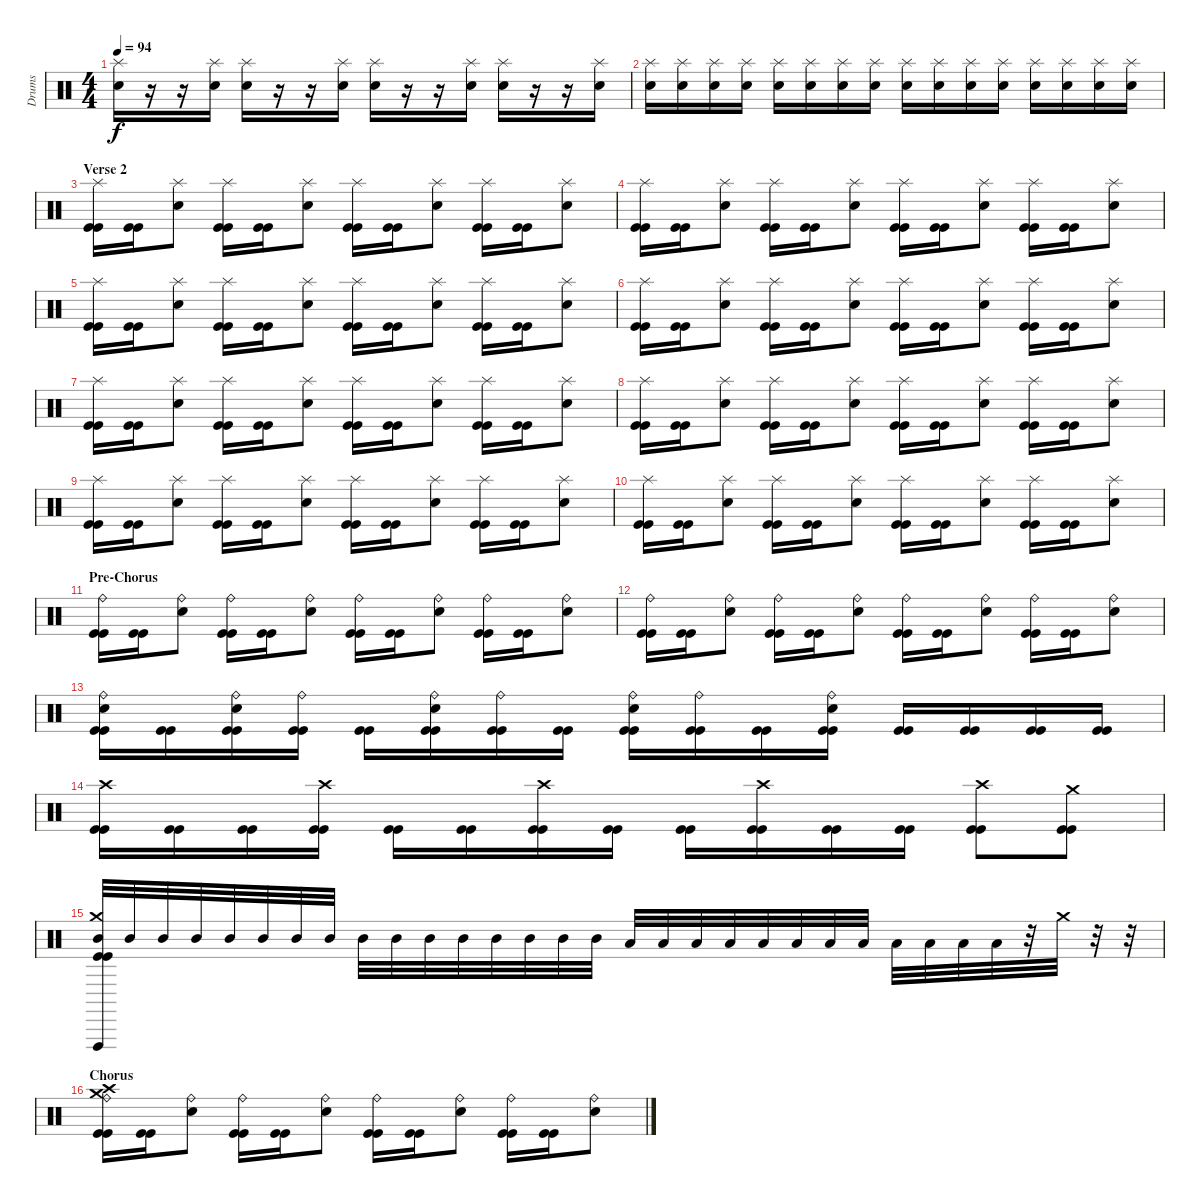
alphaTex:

\track ("Drums" "Drums") {instrument percussion}
\staff {score}
\articulation defaults
\ts (4 4)
\tempo 94
\clef neutral
\ks c
("Splash (hit)" "Snare (hit) 2").16{dy f} r.16 r.16 ("Splash (hit)" "Snare (hit) 2").16 ("Splash (hit)" "Snare (hit) 2").16 r.16 r.16 ("Splash (hit)" "Snare (hit) 2").16 ("Splash (hit)" "Snare (hit) 2").16 r.16 r.16 ("Splash (hit)" "Snare (hit) 2").16 ("Splash (hit)" "Snare (hit) 2").16 r.16 r.16 ("Splash (hit)" "Snare (hit) 2").16 |
("Splash (hit)" "Snare (hit) 2").16 ("Splash (hit)" "Snare (hit) 2").16 ("Splash (hit)" "Snare (hit) 2").16 ("Splash (hit)" "Snare (hit) 2").16 ("Splash (hit)" "Snare (hit) 2").16 ("Splash (hit)" "Snare (hit) 2").16 ("Splash (hit)" "Snare (hit) 2").16 ("Splash (hit)" "Snare (hit) 2").16 ("Splash (hit)" "Snare (hit) 2").16 ("Splash (hit)" "Snare (hit) 2").16 ("Splash (hit)" "Snare (hit) 2").16 ("Splash (hit)" "Snare (hit) 2").16 ("Splash (hit)" "Snare (hit) 2").16 ("Splash (hit)" "Snare (hit) 2").16 ("Splash (hit)" "Snare (hit) 2").16 ("Splash (hit)" "Snare (hit) 2").16 |
\section ("" "Verse 2")
("Splash (hit)" "Kick (hit)" "Kick (hit)").16 ("Kick (hit)" "Kick (hit)").16 ("Splash (hit)" "Snare (hit) 2").8 ("Splash (hit)" "Kick (hit)" "Kick (hit)").16 ("Kick (hit)" "Kick (hit)").16 ("Splash (hit)" "Snare (hit) 2").8 ("Splash (hit)" "Kick (hit)" "Kick (hit)").16 ("Kick (hit)" "Kick (hit)").16 ("Splash (hit)" "Snare (hit) 2").8 ("Splash (hit)" "Kick (hit)" "Kick (hit)").16 ("Kick (hit)" "Kick (hit)").16 ("Splash (hit)" "Snare (hit) 2").8 |
("Splash (hit)" "Kick (hit)" "Kick (hit)").16 ("Kick (hit)" "Kick (hit)").16 ("Splash (hit)" "Snare (hit) 2").8 ("Splash (hit)" "Kick (hit)" "Kick (hit)").16 ("Kick (hit)" "Kick (hit)").16 ("Splash (hit)" "Snare (hit) 2").8 ("Splash (hit)" "Kick (hit)" "Kick (hit)").16 ("Kick (hit)" "Kick (hit)").16 ("Splash (hit)" "Snare (hit) 2").8 ("Splash (hit)" "Kick (hit)" "Kick (hit)").16 ("Kick (hit)" "Kick (hit)").16 ("Splash (hit)" "Snare (hit) 2").8 |
("Splash (hit)" "Kick (hit)" "Kick (hit)").16 ("Kick (hit)" "Kick (hit)").16 ("Splash (hit)" "Snare (hit) 2").8 ("Splash (hit)" "Kick (hit)" "Kick (hit)").16 ("Kick (hit)" "Kick (hit)").16 ("Splash (hit)" "Snare (hit) 2").8 ("Splash (hit)" "Kick (hit)" "Kick (hit)").16 ("Kick (hit)" "Kick (hit)").16 ("Splash (hit)" "Snare (hit) 2").8 ("Splash (hit)" "Kick (hit)" "Kick (hit)").16 ("Kick (hit)" "Kick (hit)").16 ("Splash (hit)" "Snare (hit) 2").8 |
("Splash (hit)" "Kick (hit)" "Kick (hit)").16 ("Kick (hit)" "Kick (hit)").16 ("Splash (hit)" "Snare (hit) 2").8 ("Splash (hit)" "Kick (hit)" "Kick (hit)").16 ("Kick (hit)" "Kick (hit)").16 ("Splash (hit)" "Snare (hit) 2").8 ("Splash (hit)" "Kick (hit)" "Kick (hit)").16 ("Kick (hit)" "Kick (hit)").16 ("Splash (hit)" "Snare (hit) 2").8 ("Splash (hit)" "Kick (hit)" "Kick (hit)").16 ("Kick (hit)" "Kick (hit)").16 ("Splash (hit)" "Snare (hit) 2").8 |
("Splash (hit)" "Kick (hit)" "Kick (hit)").16 ("Kick (hit)" "Kick (hit)").16 ("Splash (hit)" "Snare (hit) 2").8 ("Splash (hit)" "Kick (hit)" "Kick (hit)").16 ("Kick (hit)" "Kick (hit)").16 ("Splash (hit)" "Snare (hit) 2").8 ("Splash (hit)" "Kick (hit)" "Kick (hit)").16 ("Kick (hit)" "Kick (hit)").16 ("Splash (hit)" "Snare (hit) 2").8 ("Splash (hit)" "Kick (hit)" "Kick (hit)").16 ("Kick (hit)" "Kick (hit)").16 ("Splash (hit)" "Snare (hit) 2").8 |
("Splash (hit)" "Kick (hit)" "Kick (hit)").16 ("Kick (hit)" "Kick (hit)").16 ("Splash (hit)" "Snare (hit) 2").8 ("Splash (hit)" "Kick (hit)" "Kick (hit)").16 ("Kick (hit)" "Kick (hit)").16 ("Splash (hit)" "Snare (hit) 2").8 ("Splash (hit)" "Kick (hit)" "Kick (hit)").16 ("Kick (hit)" "Kick (hit)").16 ("Splash (hit)" "Snare (hit) 2").8 ("Splash (hit)" "Kick (hit)" "Kick (hit)").16 ("Kick (hit)" "Kick (hit)").16 ("Splash (hit)" "Snare (hit) 2").8 |
("Splash (hit)" "Kick (hit)" "Kick (hit)").16 ("Kick (hit)" "Kick (hit)").16 ("Splash (hit)" "Snare (hit) 2").8 ("Splash (hit)" "Kick (hit)" "Kick (hit)").16 ("Kick (hit)" "Kick (hit)").16 ("Splash (hit)" "Snare (hit) 2").8 ("Splash (hit)" "Kick (hit)" "Kick (hit)").16 ("Kick (hit)" "Kick (hit)").16 ("Splash (hit)" "Snare (hit) 2").8 ("Splash (hit)" "Kick (hit)" "Kick (hit)").16 ("Kick (hit)" "Kick (hit)").16 ("Splash (hit)" "Snare (hit) 2").8 |
("Splash (hit)" "Kick (hit)" "Kick (hit)").16 ("Kick (hit)" "Kick (hit)").16 ("Splash (hit)" "Snare (hit) 2").8 ("Splash (hit)" "Kick (hit)" "Kick (hit)").16 ("Kick (hit)" "Kick (hit)").16 ("Splash (hit)" "Snare (hit) 2").8 ("Splash (hit)" "Kick (hit)" "Kick (hit)").16 ("Kick (hit)" "Kick (hit)").16 ("Splash (hit)" "Snare (hit) 2").8 ("Splash (hit)" "Kick (hit)" "Kick (hit)").16 ("Kick (hit)" "Kick (hit)").16 ("Splash (hit)" "Snare (hit) 2").8 |
\section ("" "Pre-Chorus")
("Ride (bell)" "Kick (hit)" "Kick (hit)").16 ("Kick (hit)" "Kick (hit)").16 ("Ride (bell)" "Snare (hit) 2").8 ("Ride (bell)" "Kick (hit)" "Kick (hit)").16 ("Kick (hit)" "Kick (hit)").16 ("Ride (bell)" "Snare (hit) 2").8 ("Ride (bell)" "Kick (hit)" "Kick (hit)").16 ("Kick (hit)" "Kick (hit)").16 ("Ride (bell)" "Snare (hit) 2").8 ("Ride (bell)" "Kick (hit)" "Kick (hit)").16 ("Kick (hit)" "Kick (hit)").16 ("Ride (bell)" "Snare (hit) 2").8 |
("Ride (bell)" "Kick (hit)" "Kick (hit)").16 ("Kick (hit)" "Kick (hit)").16 ("Ride (bell)" "Snare (hit) 2").8 ("Ride (bell)" "Kick (hit)" "Kick (hit)").16 ("Kick (hit)" "Kick (hit)").16 ("Ride (bell)" "Snare (hit) 2").8 ("Ride (bell)" "Kick (hit)" "Kick (hit)").16 ("Kick (hit)" "Kick (hit)").16 ("Ride (bell)" "Snare (hit) 2").8 ("Ride (bell)" "Kick (hit)" "Kick (hit)").16 ("Kick (hit)" "Kick (hit)").16 ("Ride (bell)" "Snare (hit) 2").8 |
("Ride (bell)" "Snare (hit) 2" "Kick (hit)" "Kick (hit)").16 ("Kick (hit)" "Kick (hit)").16 ("Ride (bell)" "Snare (hit) 2" "Kick (hit)" "Kick (hit)").16 ("Ride (bell)" "Kick (hit)" "Kick (hit)").16 ("Kick (hit)" "Kick (hit)").16 ("Ride (bell)" "Snare (hit) 2" "Kick (hit)" "Kick (hit)").16 ("Ride (bell)" "Kick (hit)" "Kick (hit)").16 ("Kick (hit)" "Kick (hit)").16 ("Ride (bell)" "Snare (hit) 2" "Kick (hit)" "Kick (hit)").16 ("Ride (bell)" "Kick (hit)" "Kick (hit)").16 ("Kick (hit)" "Kick (hit)").16 ("Ride (bell)" "Snare (hit) 2" "Kick (hit)" "Kick (hit)").16 ("Kick (hit)" "Kick (hit)").16 ("Kick (hit)" "Kick (hit)").16 ("Kick (hit)" "Kick (hit)").16 ("Kick (hit)" "Kick (hit)").16 |
("Crash high (hit)" "Kick (hit)" "Kick (hit)").16 ("Kick (hit)" "Kick (hit)").16 ("Kick (hit)" "Kick (hit)").16 ("Crash high (hit)" "Kick (hit)" "Kick (hit)").16 ("Kick (hit)" "Kick (hit)").16 ("Kick (hit)" "Kick (hit)").16 ("Crash high (hit)" "Kick (hit)" "Kick (hit)").16 ("Kick (hit)" "Kick (hit)").16 ("Kick (hit)" "Kick (hit)").16 ("Crash high (hit)" "Kick (hit)" "Kick (hit)").16 ("Kick (hit)" "Kick (hit)").16 ("Kick (hit)" "Kick (hit)").16 ("Crash high (hit)" "Kick (hit)" "Kick (hit)").8 ("Crash medium (hit)" "Kick (hit)" "Kick (hit)").8 |
("Vibraslap (hit)" "Crash medium (hit)" "Mid Tom (hit)" "Kick (hit)" "Kick (hit)").32 "Mid Tom (hit)".32 "Mid Tom (hit)".32 "Mid Tom (hit)".32 "Mid Tom (hit)".32 "Mid Tom (hit)".32 "Mid Tom (hit)".32 "Mid Tom (hit)".32 "Mid Tom (hit)".32 "Mid Tom (hit)".32 "Mid Tom (hit)".32 "Mid Tom (hit)".32 "Mid Tom (hit)".32 "Mid Tom (hit)".32 "Mid Tom (hit)".32 "Mid Tom (hit)".32 "Low Tom (hit)".32 "Low Tom (hit)".32 "Low Tom (hit)".32 "Low Tom (hit)".32 "Low Tom (hit)".32 "Low Tom (hit)".32 "Low Tom (hit)".32 "Low Tom (hit)".32 "Low Tom (hit)".32 "Low Tom (hit)".32 "Low Tom (hit)".32 "Low Tom (hit)".32 r.32 "Crash medium (hit)".32 r.32 r.32 |
\section ("" "Chorus")
("Ride (bell)" "Crash high (hit)" "Crash medium (hit)" "Kick (hit)" "Kick (hit)").16 ("Kick (hit)" "Kick (hit)").16 ("Ride (bell)" "Snare (hit) 2").8 ("Ride (bell)" "Kick (hit)" "Kick (hit)").16 ("Kick (hit)" "Kick (hit)").16 ("Ride (bell)" "Snare (hit) 2").8 ("Ride (bell)" "Kick (hit)" "Kick (hit)").16 ("Kick (hit)" "Kick (hit)").16 ("Ride (bell)" "Snare (hit) 2").8 ("Ride (bell)" "Kick (hit)" "Kick (hit)").16 ("Kick (hit)" "Kick (hit)").16 ("Ride (bell)" "Snare (hit) 2").8
